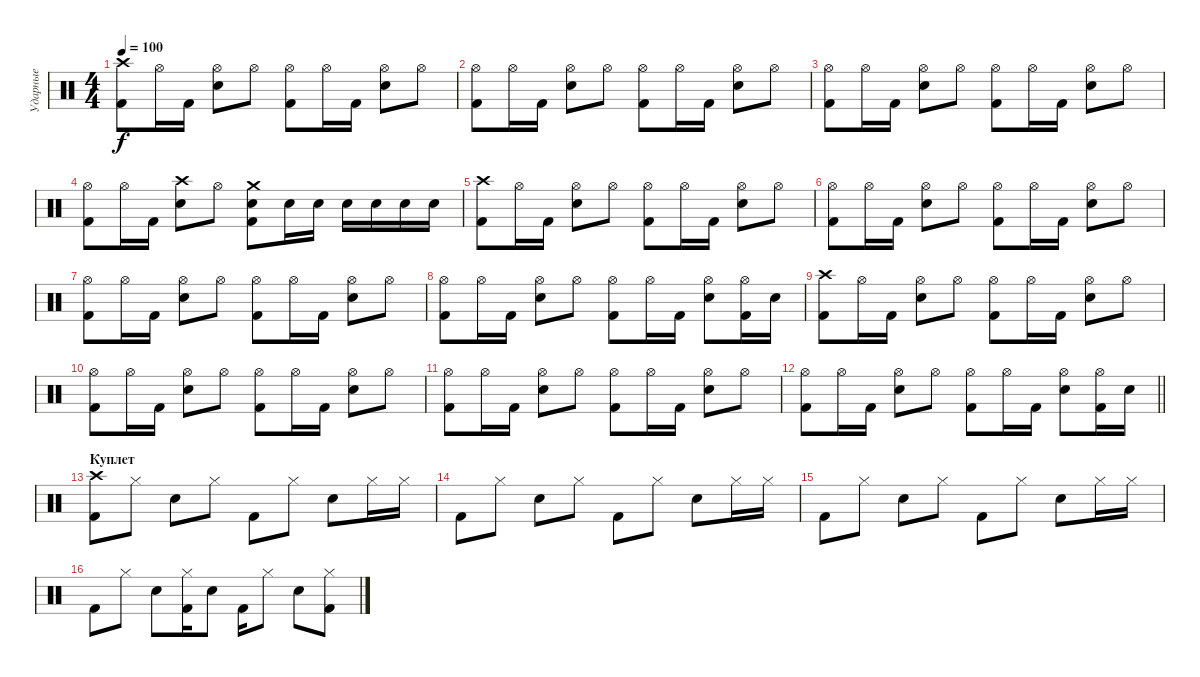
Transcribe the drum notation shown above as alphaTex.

\track ("Ударные" "Ударные") {instrument percussion}
\staff {score}
\articulation defaults
\ts (4 4)
\tempo 100
\clef neutral
\ks c
("Crash high (hit)" "Kick (hit) 2").8{dy f} "Hi-Hat (open)".16 "Kick (hit) 2".16 ("Hi-Hat (open)" "Electric Snare (hit)").8 "Hi-Hat (open)".8 ("Hi-Hat (open)" "Kick (hit) 2").8 "Hi-Hat (open)".16 "Kick (hit) 2".16 ("Hi-Hat (open)" "Electric Snare (hit)").8 "Hi-Hat (open)".8 |
("Hi-Hat (open)" "Kick (hit) 2").8 "Hi-Hat (open)".16 "Kick (hit) 2".16 ("Hi-Hat (open)" "Electric Snare (hit)").8 "Hi-Hat (open)".8 ("Hi-Hat (open)" "Kick (hit) 2").8 "Hi-Hat (open)".16 "Kick (hit) 2".16 ("Hi-Hat (open)" "Electric Snare (hit)").8 "Hi-Hat (open)".8 |
("Hi-Hat (open)" "Kick (hit) 2").8 "Hi-Hat (open)".16 "Kick (hit) 2".16 ("Hi-Hat (open)" "Electric Snare (hit)").8 "Hi-Hat (open)".8 ("Hi-Hat (open)" "Kick (hit) 2").8 "Hi-Hat (open)".16 "Kick (hit) 2".16 ("Hi-Hat (open)" "Electric Snare (hit)").8 "Hi-Hat (open)".8 |
("Hi-Hat (open)" "Kick (hit) 2").8 "Hi-Hat (open)".16 "Kick (hit) 2".16 ("Crash high (hit)" "Electric Snare (hit)").8 "Hi-Hat (open)".8 ("Crash medium (hit)" "Electric Snare (hit)" "Kick (hit) 2").8 "Electric Snare (hit)".16 "Electric Snare (hit)".16 "Electric Snare (hit)".16 "Electric Snare (hit)".16 "Electric Snare (hit)".16 "Electric Snare (hit)".16 |
("Crash high (hit)" "Kick (hit) 2").8 "Hi-Hat (open)".16 "Kick (hit) 2".16 ("Hi-Hat (open)" "Electric Snare (hit)").8 "Hi-Hat (open)".8 ("Hi-Hat (open)" "Kick (hit) 2").8 "Hi-Hat (open)".16 "Kick (hit) 2".16 ("Hi-Hat (open)" "Electric Snare (hit)").8 "Hi-Hat (open)".8 |
("Hi-Hat (open)" "Kick (hit) 2").8 "Hi-Hat (open)".16 "Kick (hit) 2".16 ("Hi-Hat (open)" "Electric Snare (hit)").8 "Hi-Hat (open)".8 ("Hi-Hat (open)" "Kick (hit) 2").8 "Hi-Hat (open)".16 "Kick (hit) 2".16 ("Hi-Hat (open)" "Electric Snare (hit)").8 "Hi-Hat (open)".8 |
("Hi-Hat (open)" "Kick (hit) 2").8 "Hi-Hat (open)".16 "Kick (hit) 2".16 ("Hi-Hat (open)" "Electric Snare (hit)").8 "Hi-Hat (open)".8 ("Hi-Hat (open)" "Kick (hit) 2").8 "Hi-Hat (open)".16 "Kick (hit) 2".16 ("Hi-Hat (open)" "Electric Snare (hit)").8 "Hi-Hat (open)".8 |
("Hi-Hat (open)" "Kick (hit) 2").8 "Hi-Hat (open)".16 "Kick (hit) 2".16 ("Hi-Hat (open)" "Electric Snare (hit)").8 "Hi-Hat (open)".8 ("Hi-Hat (open)" "Kick (hit) 2").8 "Hi-Hat (open)".16 "Kick (hit) 2".16 ("Hi-Hat (open)" "Electric Snare (hit)").8 ("Hi-Hat (open)" "Kick (hit) 2").16 "Electric Snare (hit)".16 |
("Crash high (hit)" "Kick (hit) 2").8 "Hi-Hat (open)".16 "Kick (hit) 2".16 ("Hi-Hat (open)" "Electric Snare (hit)").8 "Hi-Hat (open)".8 ("Hi-Hat (open)" "Kick (hit) 2").8 "Hi-Hat (open)".16 "Kick (hit) 2".16 ("Hi-Hat (open)" "Electric Snare (hit)").8 "Hi-Hat (open)".8 |
("Hi-Hat (open)" "Kick (hit) 2").8 "Hi-Hat (open)".16 "Kick (hit) 2".16 ("Hi-Hat (open)" "Electric Snare (hit)").8 "Hi-Hat (open)".8 ("Hi-Hat (open)" "Kick (hit) 2").8 "Hi-Hat (open)".16 "Kick (hit) 2".16 ("Hi-Hat (open)" "Electric Snare (hit)").8 "Hi-Hat (open)".8 |
("Hi-Hat (open)" "Kick (hit) 2").8 "Hi-Hat (open)".16 "Kick (hit) 2".16 ("Hi-Hat (open)" "Electric Snare (hit)").8 "Hi-Hat (open)".8 ("Hi-Hat (open)" "Kick (hit) 2").8 "Hi-Hat (open)".16 "Kick (hit) 2".16 ("Hi-Hat (open)" "Electric Snare (hit)").8 "Hi-Hat (open)".8 |
\barLineRight lightlight
("Hi-Hat (open)" "Kick (hit) 2").8 "Hi-Hat (open)".16 "Kick (hit) 2".16 ("Hi-Hat (open)" "Electric Snare (hit)").8 "Hi-Hat (open)".8 ("Hi-Hat (open)" "Kick (hit) 2").8 "Hi-Hat (open)".16 "Kick (hit) 2".16 ("Hi-Hat (open)" "Electric Snare (hit)").8 ("Hi-Hat (open)" "Kick (hit) 2").16 "Electric Snare (hit)".16 |
\section ("" "Куплет")
("Crash high (hit)" "Kick (hit) 2").8 "Hi-Hat (closed)".8 "Electric Snare (hit)".8 "Hi-Hat (closed)".8 "Kick (hit) 2".8 "Hi-Hat (closed)".8 "Electric Snare (hit)".8 "Hi-Hat (closed)".16 "Hi-Hat (closed)".16 |
"Kick (hit) 2".8 "Hi-Hat (closed)".8 "Electric Snare (hit)".8 "Hi-Hat (closed)".8 "Kick (hit) 2".8 "Hi-Hat (closed)".8 "Electric Snare (hit)".8 "Hi-Hat (closed)".16 "Hi-Hat (closed)".16 |
"Kick (hit) 2".8 "Hi-Hat (closed)".8 "Electric Snare (hit)".8 "Hi-Hat (closed)".8 "Kick (hit) 2".8 "Hi-Hat (closed)".8 "Electric Snare (hit)".8 "Hi-Hat (closed)".16 "Hi-Hat (closed)".16 |
"Kick (hit) 2".8 "Hi-Hat (closed)".8 "Electric Snare (hit)".8 ("Hi-Hat (closed)" "Kick (hit) 2").16 "Electric Snare (hit)".8 "Kick (hit) 2".16 "Hi-Hat (closed)".8 "Electric Snare (hit)".8 ("Hi-Hat (closed)" "Kick (hit) 2").8
